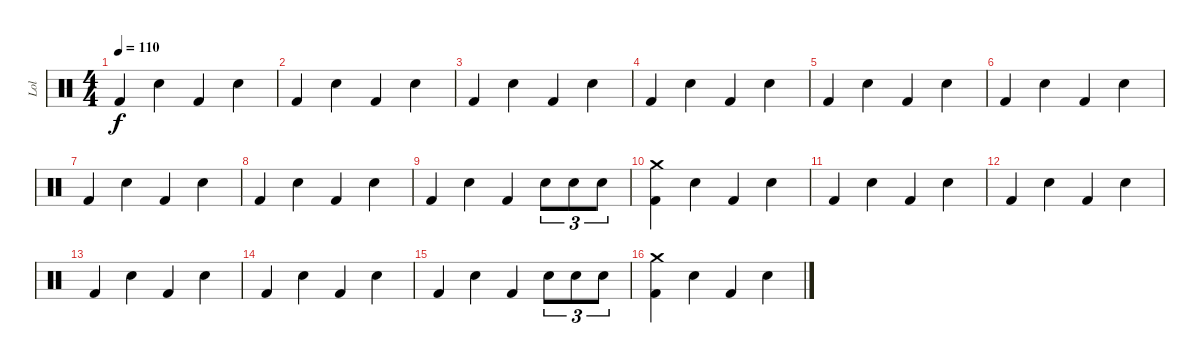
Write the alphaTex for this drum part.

\track ("Lol" "Lol") {instrument percussion}
\staff {score}
\articulation defaults
\ts (4 4)
\tempo 110
\clef neutral
\ks c "Kick (hit) 2".4{dy f} "Electric Snare (hit)".4 "Kick (hit) 2".4 "Electric Snare (hit)".4
|
"Kick (hit) 2".4 "Electric Snare (hit)".4 "Kick (hit) 2".4 "Electric Snare (hit)".4 |
"Kick (hit) 2".4 "Electric Snare (hit)".4 "Kick (hit) 2".4 "Electric Snare (hit)".4 |
"Kick (hit) 2".4 "Electric Snare (hit)".4 "Kick (hit) 2".4 "Electric Snare (hit)".4 |
"Kick (hit) 2".4 "Electric Snare (hit)".4 "Kick (hit) 2".4 "Electric Snare (hit)".4 |
"Kick (hit) 2".4 "Electric Snare (hit)".4 "Kick (hit) 2".4 "Electric Snare (hit)".4 |
"Kick (hit) 2".4 "Electric Snare (hit)".4 "Kick (hit) 2".4 "Electric Snare (hit)".4 |
"Kick (hit) 2".4 "Electric Snare (hit)".4 "Kick (hit) 2".4 "Electric Snare (hit)".4 |
"Kick (hit) 2".4 "Electric Snare (hit)".4 "Kick (hit) 2".4 "Electric Snare (hit)".8{tu (3 2)} "Electric Snare (hit)".8{tu (3 2)} "Electric Snare (hit)".8{tu (3 2)} |
("Kick (hit) 2" "Crash medium (hit)").4 "Electric Snare (hit)".4 "Kick (hit) 2".4 "Electric Snare (hit)".4 |
"Kick (hit) 2".4 "Electric Snare (hit)".4 "Kick (hit) 2".4 "Electric Snare (hit)".4 |
"Kick (hit) 2".4 "Electric Snare (hit)".4 "Kick (hit) 2".4 "Electric Snare (hit)".4 |
"Kick (hit) 2".4 "Electric Snare (hit)".4 "Kick (hit) 2".4 "Electric Snare (hit)".4 |
"Kick (hit) 2".4 "Electric Snare (hit)".4 "Kick (hit) 2".4 "Electric Snare (hit)".4 |
"Kick (hit) 2".4 "Electric Snare (hit)".4 "Kick (hit) 2".4 "Electric Snare (hit)".8{tu (3 2)} "Electric Snare (hit)".8{tu (3 2)} "Electric Snare (hit)".8{tu (3 2)} |
("Kick (hit) 2" "Crash medium (hit)").4 "Electric Snare (hit)".4 "Kick (hit) 2".4 "Electric Snare (hit)".4
